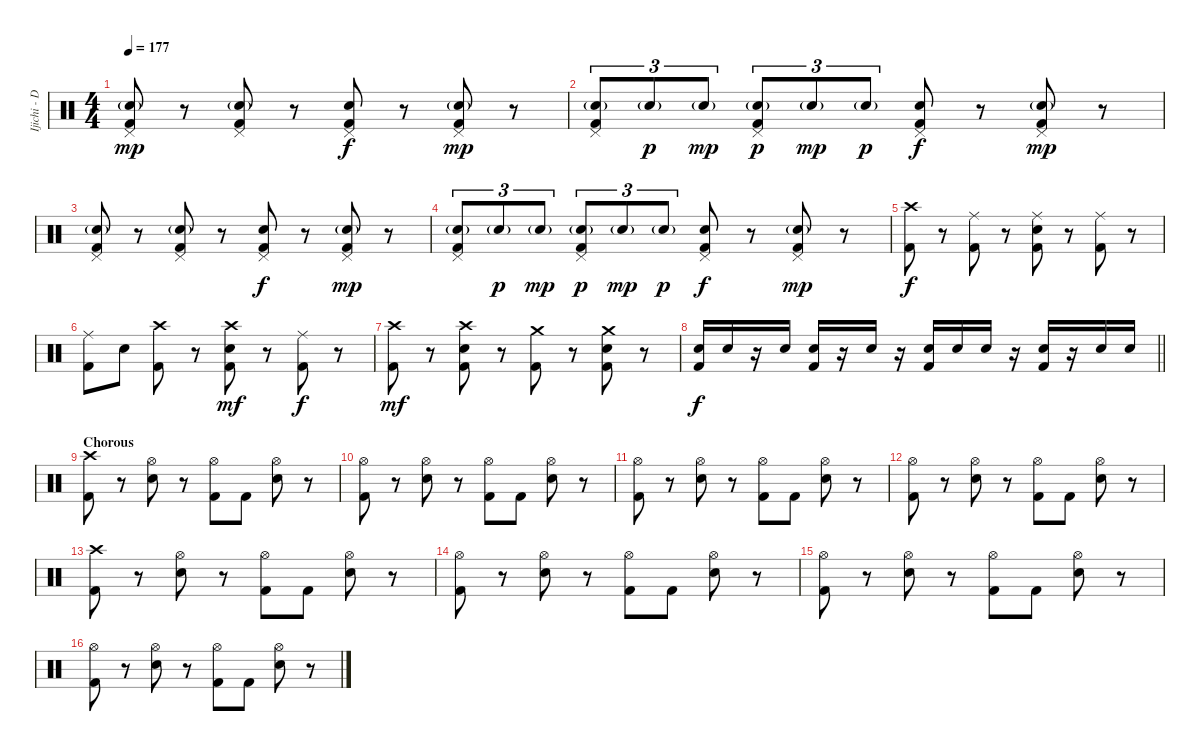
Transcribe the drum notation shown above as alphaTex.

\track ("Ijichi - Drums" "Ijichi - D") {instrument percussion}
\staff {score}
\articulation defaults
\ts (4 4)
\tempo 177
\clef neutral
\ks c
("Pedal Hi-Hat (hit)" "Snare (hit) 2"{g} "Kick (hit) 2").8{dy mp} r.8 ("Pedal Hi-Hat (hit)" "Snare (hit) 2"{g} "Kick (hit) 2").8 r.8 ("Pedal Hi-Hat (hit)" "Snare (hit) 2" "Kick (hit) 2").8{dy f} r.8 ("Pedal Hi-Hat (hit)" "Snare (hit) 2"{g} "Kick (hit) 2").8{dy mp} r.8 |
("Pedal Hi-Hat (hit)" "Snare (hit) 2"{g} "Kick (hit) 2").8{tu (3 2)} "Snare (hit) 2"{g}.8{tu (3 2) dy p} "Snare (hit) 2"{g}.8{tu (3 2) dy mp} ("Pedal Hi-Hat (hit)" "Snare (hit) 2"{g} "Kick (hit) 2").8{tu (3 2) dy p} "Snare (hit) 2"{g}.8{tu (3 2) dy mp} "Snare (hit) 2"{g}.8{tu (3 2) dy p} ("Pedal Hi-Hat (hit)" "Snare (hit) 2" "Kick (hit) 2").8{dy f} r.8 ("Pedal Hi-Hat (hit)" "Snare (hit) 2"{g} "Kick (hit) 2").8{dy mp} r.8 |
("Pedal Hi-Hat (hit)" "Snare (hit) 2"{g} "Kick (hit) 2").8 r.8 ("Pedal Hi-Hat (hit)" "Snare (hit) 2"{g} "Kick (hit) 2").8 r.8 ("Pedal Hi-Hat (hit)" "Snare (hit) 2" "Kick (hit) 2").8{dy f} r.8 ("Pedal Hi-Hat (hit)" "Snare (hit) 2"{g} "Kick (hit) 2").8{dy mp} r.8 |
("Pedal Hi-Hat (hit)" "Snare (hit) 2"{g} "Kick (hit) 2").8{tu (3 2)} "Snare (hit) 2"{g}.8{tu (3 2) dy p} "Snare (hit) 2"{g}.8{tu (3 2) dy mp} ("Pedal Hi-Hat (hit)" "Snare (hit) 2"{g} "Kick (hit) 2").8{tu (3 2) dy p} "Snare (hit) 2"{g}.8{tu (3 2) dy mp} "Snare (hit) 2"{g}.8{tu (3 2) dy p} ("Pedal Hi-Hat (hit)" "Snare (hit) 2" "Kick (hit) 2").8{dy f} r.8 ("Pedal Hi-Hat (hit)" "Snare (hit) 2"{g} "Kick (hit) 2").8{dy mp} r.8 |
("Crash high (hit)" "Kick (hit) 2").8{dy f} r.8 ("Ride (middle)" "Kick (hit) 2").8 r.8 ("Ride (middle)" "Snare (hit) 2" "Kick (hit) 2").8 r.8 ("Ride (middle)" "Kick (hit) 2").8 r.8 |
("Ride (middle)" "Kick (hit) 2").8 "Snare (hit) 2".8 ("Crash high (hit)" "Kick (hit) 2").8 r.8 ("Crash high (hit)" "Snare (hit) 2" "Kick (hit) 2").8{dy mf} r.8 ("Ride (middle)" "Kick (hit) 2").8{dy f} r.8 |
("Crash high (hit)" "Kick (hit) 2").8{dy mf} r.8 ("Crash high (hit)" "Snare (hit) 2" "Kick (hit) 2").8 r.8 ("Crash medium (hit)" "Kick (hit) 2").8 r.8 ("Crash medium (hit)" "Snare (hit) 2" "Kick (hit) 2").8 r.8 |
\barLineRight lightlight
("Snare (hit) 2" "Kick (hit) 2").16{dy f} "Snare (hit) 2".16 r.16 "Snare (hit) 2".16 ("Snare (hit) 2" "Kick (hit) 2").16 r.16 "Snare (hit) 2".16 r.16 ("Snare (hit) 2" "Kick (hit) 2").16 "Snare (hit) 2".16 "Snare (hit) 2".16 r.16 ("Snare (hit) 2" "Kick (hit) 2").16 r.16 "Snare (hit) 2".16 "Snare (hit) 2".16 |
\section ("" "Chorous")
("Crash high (hit)" "Kick (hit) 2").8 r.8 ("Hi-Hat (open)" "Snare (hit) 2").8 r.8 ("Hi-Hat (open)" "Kick (hit) 2").8 "Kick (hit) 2".8 ("Hi-Hat (open)" "Snare (hit) 2").8 r.8 |
("Hi-Hat (open)" "Kick (hit) 2").8 r.8 ("Hi-Hat (open)" "Snare (hit) 2").8 r.8 ("Hi-Hat (open)" "Kick (hit) 2").8 "Kick (hit) 2".8 ("Hi-Hat (open)" "Snare (hit) 2").8 r.8 |
("Hi-Hat (open)" "Kick (hit) 2").8 r.8 ("Hi-Hat (open)" "Snare (hit) 2").8 r.8 ("Hi-Hat (open)" "Kick (hit) 2").8 "Kick (hit) 2".8 ("Hi-Hat (open)" "Snare (hit) 2").8 r.8 |
("Hi-Hat (open)" "Kick (hit) 2").8 r.8 ("Hi-Hat (open)" "Snare (hit) 2").8 r.8 ("Hi-Hat (open)" "Kick (hit) 2").8 "Kick (hit) 2".8 ("Hi-Hat (open)" "Snare (hit) 2").8 r.8 |
("Crash high (hit)" "Kick (hit) 2").8 r.8 ("Hi-Hat (open)" "Snare (hit) 2").8 r.8 ("Hi-Hat (open)" "Kick (hit) 2").8 "Kick (hit) 2".8 ("Hi-Hat (open)" "Snare (hit) 2").8 r.8 |
("Hi-Hat (open)" "Kick (hit) 2").8 r.8 ("Hi-Hat (open)" "Snare (hit) 2").8 r.8 ("Hi-Hat (open)" "Kick (hit) 2").8 "Kick (hit) 2".8 ("Hi-Hat (open)" "Snare (hit) 2").8 r.8 |
("Hi-Hat (open)" "Kick (hit) 2").8 r.8 ("Hi-Hat (open)" "Snare (hit) 2").8 r.8 ("Hi-Hat (open)" "Kick (hit) 2").8 "Kick (hit) 2".8 ("Hi-Hat (open)" "Snare (hit) 2").8 r.8 |
("Hi-Hat (open)" "Kick (hit) 2").8 r.8 ("Hi-Hat (open)" "Snare (hit) 2").8 r.8 ("Hi-Hat (open)" "Kick (hit) 2").8 "Kick (hit) 2".8 ("Hi-Hat (open)" "Snare (hit) 2").8 r.8
